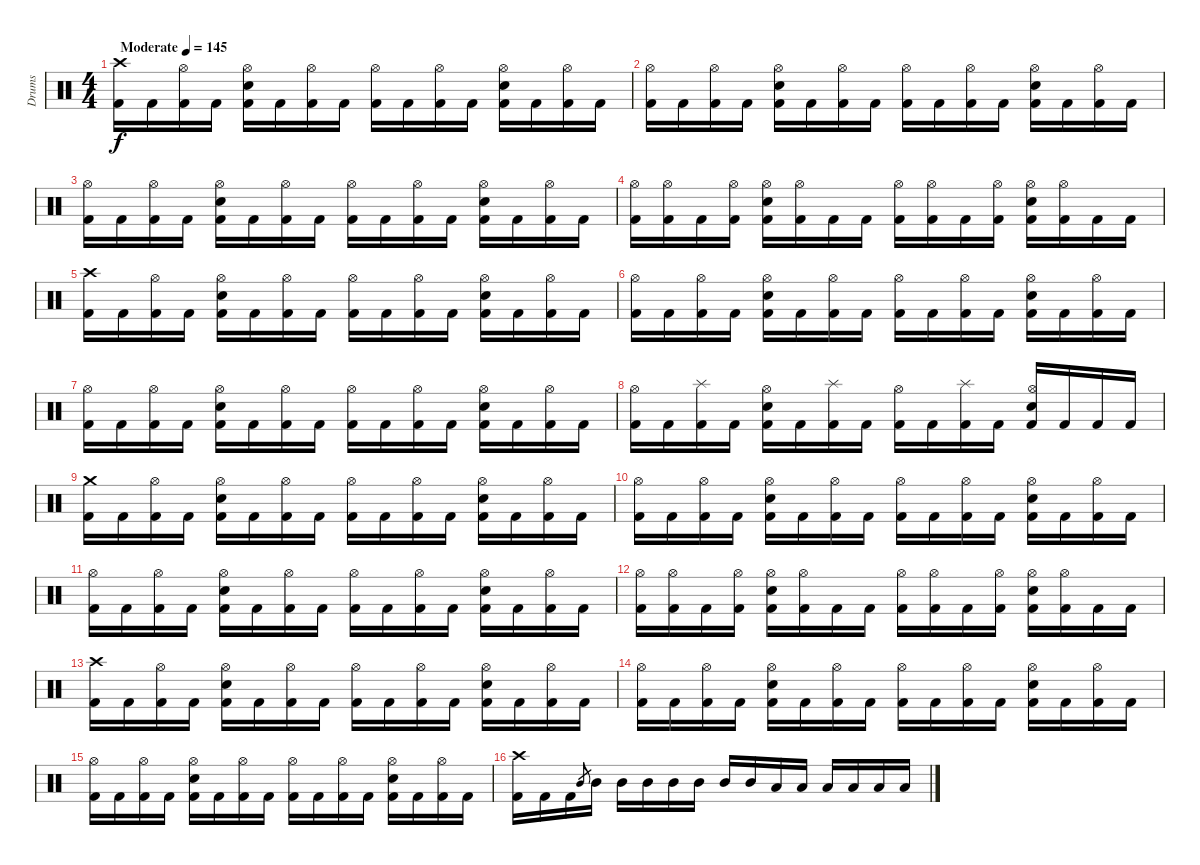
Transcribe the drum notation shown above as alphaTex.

\track ("Drums" "Drums") {instrument percussion}
\staff {score}
\articulation defaults
\ts (4 4)
\tempo (145 "Moderate")
\clef neutral
\ks c
("Crash high (hit)" "Kick (hit) 2").16{dy f} "Kick (hit) 2".16 ("Hi-Hat (open)" "Kick (hit) 2").16 "Kick (hit) 2".16 ("Hi-Hat (open)" "Electric Snare (hit)" "Kick (hit) 2").16 "Kick (hit) 2".16 ("Hi-Hat (open)" "Kick (hit) 2").16 "Kick (hit) 2".16 ("Hi-Hat (open)" "Kick (hit) 2").16 "Kick (hit) 2".16 ("Hi-Hat (open)" "Kick (hit) 2").16 "Kick (hit) 2".16 ("Hi-Hat (open)" "Electric Snare (hit)" "Kick (hit) 2").16 "Kick (hit) 2".16 ("Hi-Hat (open)" "Kick (hit) 2").16 "Kick (hit) 2".16 |
("Hi-Hat (open)" "Kick (hit) 2").16 "Kick (hit) 2".16 ("Hi-Hat (open)" "Kick (hit) 2").16 "Kick (hit) 2".16 ("Hi-Hat (open)" "Electric Snare (hit)" "Kick (hit) 2").16 "Kick (hit) 2".16 ("Hi-Hat (open)" "Kick (hit) 2").16 "Kick (hit) 2".16 ("Hi-Hat (open)" "Kick (hit) 2").16 "Kick (hit) 2".16 ("Hi-Hat (open)" "Kick (hit) 2").16 "Kick (hit) 2".16 ("Hi-Hat (open)" "Electric Snare (hit)" "Kick (hit) 2").16 "Kick (hit) 2".16 ("Hi-Hat (open)" "Kick (hit) 2").16 "Kick (hit) 2".16 |
("Hi-Hat (open)" "Kick (hit) 2").16 "Kick (hit) 2".16 ("Hi-Hat (open)" "Kick (hit) 2").16 "Kick (hit) 2".16 ("Hi-Hat (open)" "Electric Snare (hit)" "Kick (hit) 2").16 "Kick (hit) 2".16 ("Hi-Hat (open)" "Kick (hit) 2").16 "Kick (hit) 2".16 ("Hi-Hat (open)" "Kick (hit) 2").16 "Kick (hit) 2".16 ("Hi-Hat (open)" "Kick (hit) 2").16 "Kick (hit) 2".16 ("Hi-Hat (open)" "Electric Snare (hit)" "Kick (hit) 2").16 "Kick (hit) 2".16 ("Hi-Hat (open)" "Kick (hit) 2").16 "Kick (hit) 2".16 |
("Hi-Hat (open)" "Kick (hit) 2").16 ("Hi-Hat (open)" "Kick (hit) 2").16 "Kick (hit) 2".16 ("Hi-Hat (open)" "Kick (hit) 2").16 ("Hi-Hat (open)" "Electric Snare (hit)" "Kick (hit) 2").16 ("Hi-Hat (open)" "Kick (hit) 2").16 "Kick (hit) 2".16 "Kick (hit) 2".16 ("Hi-Hat (open)" "Kick (hit) 2").16 ("Hi-Hat (open)" "Kick (hit) 2").16 "Kick (hit) 2".16 ("Hi-Hat (open)" "Kick (hit) 2").16 ("Hi-Hat (open)" "Electric Snare (hit)" "Kick (hit) 2").16 ("Hi-Hat (open)" "Kick (hit) 2").16 "Kick (hit) 2".16 "Kick (hit) 2".16 |
("Crash high (hit)" "Kick (hit) 2").16 "Kick (hit) 2".16 ("Hi-Hat (open)" "Kick (hit) 2").16 "Kick (hit) 2".16 ("Hi-Hat (open)" "Electric Snare (hit)" "Kick (hit) 2").16 "Kick (hit) 2".16 ("Hi-Hat (open)" "Kick (hit) 2").16 "Kick (hit) 2".16 ("Hi-Hat (open)" "Kick (hit) 2").16 "Kick (hit) 2".16 ("Hi-Hat (open)" "Kick (hit) 2").16 "Kick (hit) 2".16 ("Hi-Hat (open)" "Electric Snare (hit)" "Kick (hit) 2").16 "Kick (hit) 2".16 ("Hi-Hat (open)" "Kick (hit) 2").16 "Kick (hit) 2".16 |
("Hi-Hat (open)" "Kick (hit) 2").16 "Kick (hit) 2".16 ("Hi-Hat (open)" "Kick (hit) 2").16 "Kick (hit) 2".16 ("Hi-Hat (open)" "Electric Snare (hit)" "Kick (hit) 2").16 "Kick (hit) 2".16 ("Hi-Hat (open)" "Kick (hit) 2").16 "Kick (hit) 2".16 ("Hi-Hat (open)" "Kick (hit) 2").16 "Kick (hit) 2".16 ("Hi-Hat (open)" "Kick (hit) 2").16 "Kick (hit) 2".16 ("Hi-Hat (open)" "Electric Snare (hit)" "Kick (hit) 2").16 "Kick (hit) 2".16 ("Hi-Hat (open)" "Kick (hit) 2").16 "Kick (hit) 2".16 |
("Hi-Hat (open)" "Kick (hit) 2").16 "Kick (hit) 2".16 ("Hi-Hat (open)" "Kick (hit) 2").16 "Kick (hit) 2".16 ("Hi-Hat (open)" "Electric Snare (hit)" "Kick (hit) 2").16 "Kick (hit) 2".16 ("Hi-Hat (open)" "Kick (hit) 2").16 "Kick (hit) 2".16 ("Hi-Hat (open)" "Kick (hit) 2").16 "Kick (hit) 2".16 ("Hi-Hat (open)" "Kick (hit) 2").16 "Kick (hit) 2".16 ("Hi-Hat (open)" "Electric Snare (hit)" "Kick (hit) 2").16 "Kick (hit) 2".16 ("Hi-Hat (open)" "Kick (hit) 2").16 "Kick (hit) 2".16 |
("Hi-Hat (open)" "Kick (hit) 2").16 "Kick (hit) 2".16 ("Splash (hit)" "Kick (hit) 2").16 "Kick (hit) 2".16 ("Hi-Hat (open)" "Electric Snare (hit)" "Kick (hit) 2").16 "Kick (hit) 2".16 ("Splash (hit)" "Kick (hit) 2").16 "Kick (hit) 2".16 ("Hi-Hat (open)" "Kick (hit) 2").16 "Kick (hit) 2".16 ("Splash (hit)" "Kick (hit) 2").16 "Kick (hit) 2".16 ("Hi-Hat (open)" "Electric Snare (hit)" "Kick (hit) 2").16 "Kick (hit) 2".16 "Kick (hit) 2".16 "Kick (hit) 2".16 |
("Crash medium (hit)" "Kick (hit) 2").16 "Kick (hit) 2".16 ("Hi-Hat (open)" "Kick (hit) 2").16 "Kick (hit) 2".16 ("Hi-Hat (open)" "Electric Snare (hit)" "Kick (hit) 2").16 "Kick (hit) 2".16 ("Hi-Hat (open)" "Kick (hit) 2").16 "Kick (hit) 2".16 ("Hi-Hat (open)" "Kick (hit) 2").16 "Kick (hit) 2".16 ("Hi-Hat (open)" "Kick (hit) 2").16 "Kick (hit) 2".16 ("Hi-Hat (open)" "Electric Snare (hit)" "Kick (hit) 2").16 "Kick (hit) 2".16 ("Hi-Hat (open)" "Kick (hit) 2").16 "Kick (hit) 2".16 |
("Hi-Hat (open)" "Kick (hit) 2").16 "Kick (hit) 2".16 ("Hi-Hat (open)" "Kick (hit) 2").16 "Kick (hit) 2".16 ("Hi-Hat (open)" "Electric Snare (hit)" "Kick (hit) 2").16 "Kick (hit) 2".16 ("Hi-Hat (open)" "Kick (hit) 2").16 "Kick (hit) 2".16 ("Hi-Hat (open)" "Kick (hit) 2").16 "Kick (hit) 2".16 ("Hi-Hat (open)" "Kick (hit) 2").16 "Kick (hit) 2".16 ("Hi-Hat (open)" "Electric Snare (hit)" "Kick (hit) 2").16 "Kick (hit) 2".16 ("Hi-Hat (open)" "Kick (hit) 2").16 "Kick (hit) 2".16 |
("Hi-Hat (open)" "Kick (hit) 2").16 "Kick (hit) 2".16 ("Hi-Hat (open)" "Kick (hit) 2").16 "Kick (hit) 2".16 ("Hi-Hat (open)" "Electric Snare (hit)" "Kick (hit) 2").16 "Kick (hit) 2".16 ("Hi-Hat (open)" "Kick (hit) 2").16 "Kick (hit) 2".16 ("Hi-Hat (open)" "Kick (hit) 2").16 "Kick (hit) 2".16 ("Hi-Hat (open)" "Kick (hit) 2").16 "Kick (hit) 2".16 ("Hi-Hat (open)" "Electric Snare (hit)" "Kick (hit) 2").16 "Kick (hit) 2".16 ("Hi-Hat (open)" "Kick (hit) 2").16 "Kick (hit) 2".16 |
("Hi-Hat (open)" "Kick (hit) 2").16 ("Hi-Hat (open)" "Kick (hit) 2").16 "Kick (hit) 2".16 ("Hi-Hat (open)" "Kick (hit) 2").16 ("Hi-Hat (open)" "Electric Snare (hit)" "Kick (hit) 2").16 ("Hi-Hat (open)" "Kick (hit) 2").16 "Kick (hit) 2".16 "Kick (hit) 2".16 ("Hi-Hat (open)" "Kick (hit) 2").16 ("Hi-Hat (open)" "Kick (hit) 2").16 "Kick (hit) 2".16 ("Hi-Hat (open)" "Kick (hit) 2").16 ("Hi-Hat (open)" "Electric Snare (hit)" "Kick (hit) 2").16 ("Hi-Hat (open)" "Kick (hit) 2").16 "Kick (hit) 2".16 "Kick (hit) 2".16 |
("Crash high (hit)" "Kick (hit) 2").16 "Kick (hit) 2".16 ("Hi-Hat (open)" "Kick (hit) 2").16 "Kick (hit) 2".16 ("Hi-Hat (open)" "Electric Snare (hit)" "Kick (hit) 2").16 "Kick (hit) 2".16 ("Hi-Hat (open)" "Kick (hit) 2").16 "Kick (hit) 2".16 ("Hi-Hat (open)" "Kick (hit) 2").16 "Kick (hit) 2".16 ("Hi-Hat (open)" "Kick (hit) 2").16 "Kick (hit) 2".16 ("Hi-Hat (open)" "Electric Snare (hit)" "Kick (hit) 2").16 "Kick (hit) 2".16 ("Hi-Hat (open)" "Kick (hit) 2").16 "Kick (hit) 2".16 |
("Hi-Hat (open)" "Kick (hit) 2").16 "Kick (hit) 2".16 ("Hi-Hat (open)" "Kick (hit) 2").16 "Kick (hit) 2".16 ("Hi-Hat (open)" "Electric Snare (hit)" "Kick (hit) 2").16 "Kick (hit) 2".16 ("Hi-Hat (open)" "Kick (hit) 2").16 "Kick (hit) 2".16 ("Hi-Hat (open)" "Kick (hit) 2").16 "Kick (hit) 2".16 ("Hi-Hat (open)" "Kick (hit) 2").16 "Kick (hit) 2".16 ("Hi-Hat (open)" "Electric Snare (hit)" "Kick (hit) 2").16 "Kick (hit) 2".16 ("Hi-Hat (open)" "Kick (hit) 2").16 "Kick (hit) 2".16 |
("Hi-Hat (open)" "Kick (hit) 2").16 "Kick (hit) 2".16 ("Hi-Hat (open)" "Kick (hit) 2").16 "Kick (hit) 2".16 ("Hi-Hat (open)" "Electric Snare (hit)" "Kick (hit) 2").16 "Kick (hit) 2".16 ("Hi-Hat (open)" "Kick (hit) 2").16 "Kick (hit) 2".16 ("Hi-Hat (open)" "Kick (hit) 2").16 "Kick (hit) 2".16 ("Hi-Hat (open)" "Kick (hit) 2").16 "Kick (hit) 2".16 ("Hi-Hat (open)" "Electric Snare (hit)" "Kick (hit) 2").16 "Kick (hit) 2".16 ("Hi-Hat (open)" "Kick (hit) 2").16 "Kick (hit) 2".16 |
("Crash high (hit)" "Kick (hit) 2").16 "Kick (hit) 2".16 "Kick (hit) 2".16 "Mid Tom (hit)".8{gr} "Mid Tom (hit)".16 "Mid Tom (hit)".16 "Mid Tom (hit)".16 "Mid Tom (hit)".16 "Mid Tom (hit)".16 "Mid Tom (hit)".16 "Mid Tom (hit)".16 "Low Tom (hit)".16 "Low Tom (hit)".16 "Low Tom (hit)".16 "Low Tom (hit)".16 "Low Tom (hit)".16 "Low Tom (hit)".16
